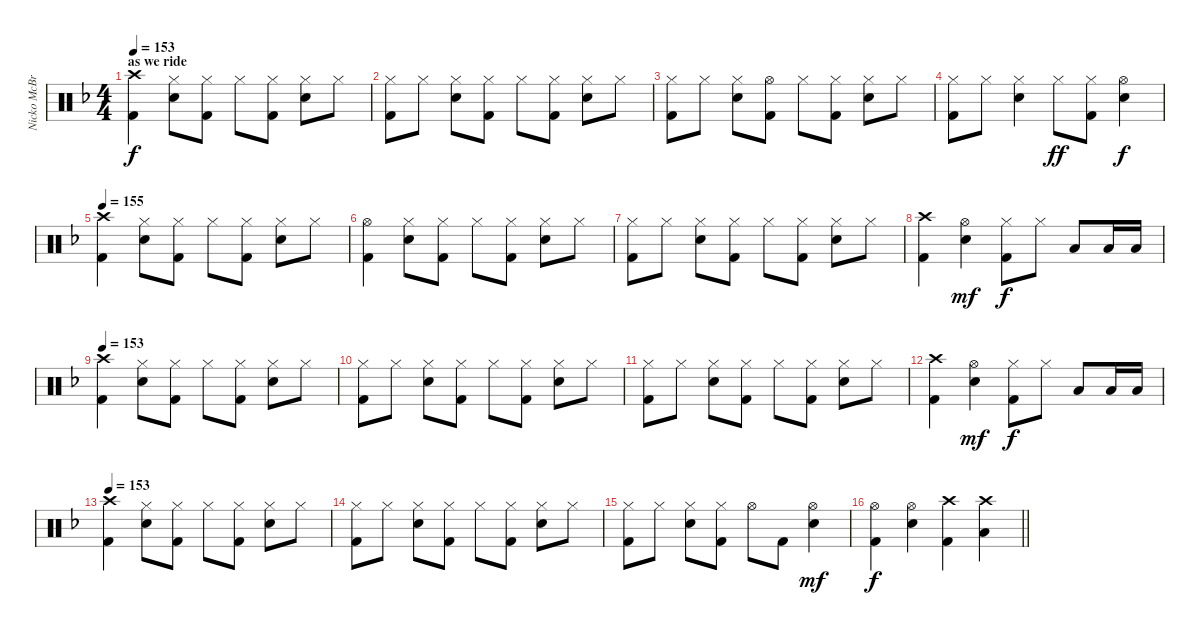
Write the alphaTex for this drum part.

\track ("Nicko McBrain" "Nicko McBr") {instrument percussion}
\staff {score}
\articulation defaults
\ts (4 4)
\section ("" "as we ride")
\tempo 153
\clef neutral
\ks f
("Crash high (hit)" "Kick (hit) 2").4{dy f} ("Hi-Hat (closed)" "Electric Snare (hit)").8 ("Hi-Hat (closed)" "Kick (hit) 2").8 "Hi-Hat (closed)".8 ("Hi-Hat (closed)" "Kick (hit) 2").8 ("Hi-Hat (closed)" "Electric Snare (hit)").8 "Hi-Hat (closed)".8 |
("Hi-Hat (closed)" "Kick (hit) 2").8 "Hi-Hat (closed)".8 ("Hi-Hat (closed)" "Electric Snare (hit)").8 ("Hi-Hat (closed)" "Kick (hit) 2").8 "Hi-Hat (closed)".8 ("Hi-Hat (closed)" "Kick (hit) 2").8 ("Hi-Hat (closed)" "Electric Snare (hit)").8 "Hi-Hat (closed)".8 |
("Hi-Hat (closed)" "Kick (hit) 2").8 "Hi-Hat (closed)".8 ("Hi-Hat (closed)" "Electric Snare (hit)").8 ("Hi-Hat (open)" "Kick (hit) 2").8 "Hi-Hat (closed)".8 ("Hi-Hat (closed)" "Kick (hit) 2").8 ("Hi-Hat (closed)" "Electric Snare (hit)").8 "Hi-Hat (closed)".8 |
("Hi-Hat (closed)" "Kick (hit) 2").8 "Hi-Hat (closed)".8 ("Hi-Hat (closed)" "Electric Snare (hit)").4 "Hi-Hat (closed)".8{dy ff} ("Hi-Hat (closed)" "Kick (hit) 2").8 ("Hi-Hat (open)" "Electric Snare (hit)").4{dy f} |
\tempo 153
\tempo 155
("Crash high (hit)" "Kick (hit) 2").4 ("Hi-Hat (closed)" "Electric Snare (hit)").8 ("Hi-Hat (closed)" "Kick (hit) 2").8 "Hi-Hat (closed)".8 ("Hi-Hat (closed)" "Kick (hit) 2").8 ("Hi-Hat (closed)" "Electric Snare (hit)").8 "Hi-Hat (closed)".8 |
("Hi-Hat (open)" "Kick (hit) 2").4 ("Hi-Hat (closed)" "Electric Snare (hit)").8 ("Hi-Hat (closed)" "Kick (hit) 2").8 "Hi-Hat (closed)".8 ("Hi-Hat (closed)" "Kick (hit) 2").8 ("Hi-Hat (closed)" "Electric Snare (hit)").8 "Hi-Hat (closed)".8 |
("Hi-Hat (closed)" "Kick (hit) 2").8 "Hi-Hat (closed)".8 ("Hi-Hat (closed)" "Electric Snare (hit)").8 ("Hi-Hat (closed)" "Kick (hit) 2").8 "Hi-Hat (closed)".8 ("Hi-Hat (closed)" "Kick (hit) 2").8 ("Hi-Hat (closed)" "Electric Snare (hit)").8 "Hi-Hat (closed)".8 |
("Crash high (hit)" "Kick (hit) 2").4 ("Hi-Hat (open)" "Electric Snare (hit)").4{dy mf} ("Hi-Hat (closed)" "Kick (hit) 2").8{dy f} "Hi-Hat (closed)".8 "Low Tom (hit)".8 "Low Tom (hit)".16 "Low Tom (hit)".16 |
\tempo 153
("Crash high (hit)" "Kick (hit) 2").4 ("Hi-Hat (closed)" "Electric Snare (hit)").8 ("Hi-Hat (closed)" "Kick (hit) 2").8 "Hi-Hat (closed)".8 ("Hi-Hat (closed)" "Kick (hit) 2").8 ("Hi-Hat (closed)" "Electric Snare (hit)").8 "Hi-Hat (closed)".8 |
("Hi-Hat (closed)" "Kick (hit) 2").8 "Hi-Hat (closed)".8 ("Hi-Hat (closed)" "Electric Snare (hit)").8 ("Hi-Hat (closed)" "Kick (hit) 2").8 "Hi-Hat (closed)".8 ("Hi-Hat (closed)" "Kick (hit) 2").8 ("Hi-Hat (closed)" "Electric Snare (hit)").8 "Hi-Hat (closed)".8 |
("Hi-Hat (closed)" "Kick (hit) 2").8 "Hi-Hat (closed)".8 ("Hi-Hat (closed)" "Electric Snare (hit)").8 ("Hi-Hat (closed)" "Kick (hit) 2").8 "Hi-Hat (closed)".8 ("Hi-Hat (closed)" "Kick (hit) 2").8 ("Hi-Hat (closed)" "Electric Snare (hit)").8 "Hi-Hat (closed)".8 |
("Crash high (hit)" "Kick (hit) 2").4 ("Hi-Hat (open)" "Electric Snare (hit)").4{dy mf} ("Hi-Hat (closed)" "Kick (hit) 2").8{dy f} "Hi-Hat (closed)".8 "Low Tom (hit)".8 "Low Tom (hit)".16 "Low Tom (hit)".16 |
\tempo 153
("Crash high (hit)" "Kick (hit) 2").4 ("Hi-Hat (closed)" "Electric Snare (hit)").8 ("Hi-Hat (closed)" "Kick (hit) 2").8 "Hi-Hat (closed)".8 ("Hi-Hat (closed)" "Kick (hit) 2").8 ("Hi-Hat (closed)" "Electric Snare (hit)").8 "Hi-Hat (closed)".8 |
("Hi-Hat (closed)" "Kick (hit) 2").8 "Hi-Hat (closed)".8 ("Hi-Hat (closed)" "Electric Snare (hit)").8 ("Hi-Hat (closed)" "Kick (hit) 2").8 "Hi-Hat (closed)".8 ("Hi-Hat (closed)" "Kick (hit) 2").8 ("Hi-Hat (closed)" "Electric Snare (hit)").8 "Hi-Hat (closed)".8 |
("Hi-Hat (closed)" "Kick (hit) 2").8 "Hi-Hat (closed)".8 ("Hi-Hat (closed)" "Electric Snare (hit)").8 ("Hi-Hat (closed)" "Kick (hit) 2").8 "Hi-Hat (open)".8 "Kick (hit) 2".8 ("Hi-Hat (open)" "Electric Snare (hit)").4{dy mf} |
\barLineRight lightlight
("Hi-Hat (open)" "Kick (hit) 2").4{dy f} ("Hi-Hat (open)" "Electric Snare (hit)").4 ("Crash high (hit)" "Kick (hit) 2").4 ("Crash high (hit)" "Low Tom (hit)").4
